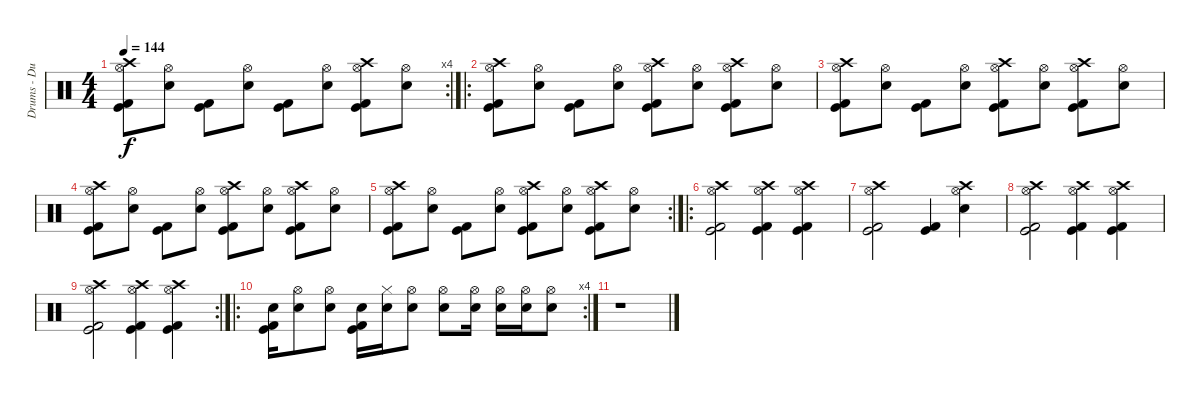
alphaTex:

\track ("Drums - Duncan Scott" "Drums - Du") {instrument percussion}
\staff {score}
\articulation defaults
\rc 4
\ts (4 4)
\tempo 144
\clef neutral
\ks c
("Hi-Hat (open)" "Crash high (hit)" "Kick (hit)" "Kick (hit) 2").8{dy f} ("Hi-Hat (open)" "Electric Snare (hit)").8 ("Kick (hit)" "Kick (hit) 2").8 ("Hi-Hat (open)" "Electric Snare (hit)").8 ("Kick (hit)" "Kick (hit) 2").8 ("Hi-Hat (open)" "Electric Snare (hit)").8 ("Hi-Hat (open)" "Crash high (hit)" "Kick (hit)" "Kick (hit) 2").8 ("Hi-Hat (open)" "Electric Snare (hit)").8 |
\ro
("Crash high (hit)" "Hi-Hat (open)" "Kick (hit)" "Kick (hit) 2").8 ("Hi-Hat (open)" "Electric Snare (hit)").8 ("Kick (hit)" "Kick (hit) 2").8 ("Hi-Hat (open)" "Electric Snare (hit)").8 ("Crash high (hit)" "Hi-Hat (open)" "Kick (hit)" "Kick (hit) 2").8 ("Hi-Hat (open)" "Electric Snare (hit)").8 ("Crash high (hit)" "Hi-Hat (open)" "Kick (hit)" "Kick (hit) 2").8 ("Hi-Hat (open)" "Electric Snare (hit)").8 |
("Crash high (hit)" "Hi-Hat (open)" "Kick (hit)" "Kick (hit) 2").8 ("Hi-Hat (open)" "Electric Snare (hit)").8 ("Kick (hit)" "Kick (hit) 2").8 ("Hi-Hat (open)" "Electric Snare (hit)").8 ("Crash high (hit)" "Hi-Hat (open)" "Kick (hit)" "Kick (hit) 2").8 ("Hi-Hat (open)" "Electric Snare (hit)").8 ("Crash high (hit)" "Hi-Hat (open)" "Kick (hit)" "Kick (hit) 2").8 ("Hi-Hat (open)" "Electric Snare (hit)").8 |
("Crash high (hit)" "Hi-Hat (open)" "Kick (hit)" "Kick (hit) 2").8 ("Hi-Hat (open)" "Electric Snare (hit)").8 ("Kick (hit)" "Kick (hit) 2").8 ("Hi-Hat (open)" "Electric Snare (hit)").8 ("Crash high (hit)" "Hi-Hat (open)" "Kick (hit)" "Kick (hit) 2").8 ("Hi-Hat (open)" "Electric Snare (hit)").8 ("Crash high (hit)" "Hi-Hat (open)" "Kick (hit)" "Kick (hit) 2").8 ("Hi-Hat (open)" "Electric Snare (hit)").8 |
\rc 2
("Crash high (hit)" "Hi-Hat (open)" "Kick (hit)" "Kick (hit) 2").8 ("Hi-Hat (open)" "Electric Snare (hit)").8 ("Kick (hit)" "Kick (hit) 2").8 ("Hi-Hat (open)" "Electric Snare (hit)").8 ("Crash high (hit)" "Hi-Hat (open)" "Kick (hit)" "Kick (hit) 2").8 ("Hi-Hat (open)" "Electric Snare (hit)").8 ("Crash high (hit)" "Hi-Hat (open)" "Kick (hit)" "Kick (hit) 2").8 ("Hi-Hat (open)" "Electric Snare (hit)").8 |
\ro
("Crash high (hit)" "Hi-Hat (open)" "Kick (hit)" "Kick (hit) 2").2 ("Crash high (hit)" "Hi-Hat (open)" "Kick (hit)" "Kick (hit) 2").4 ("Crash high (hit)" "Hi-Hat (open)" "Kick (hit)" "Kick (hit) 2").4 |
("Crash high (hit)" "Hi-Hat (open)" "Kick (hit)" "Kick (hit) 2").2 ("Kick (hit)" "Kick (hit) 2").4 ("Crash high (hit)" "Hi-Hat (open)" "Electric Snare (hit)").4 |
("Crash high (hit)" "Hi-Hat (open)" "Kick (hit)" "Kick (hit) 2").2 ("Crash high (hit)" "Hi-Hat (open)" "Kick (hit)" "Kick (hit) 2").4 ("Crash high (hit)" "Hi-Hat (open)" "Kick (hit)" "Kick (hit) 2").4 |
\rc 2
("Crash high (hit)" "Hi-Hat (open)" "Kick (hit)" "Kick (hit) 2").2 ("Crash high (hit)" "Hi-Hat (open)" "Kick (hit)" "Kick (hit) 2").4 ("Crash high (hit)" "Hi-Hat (open)" "Kick (hit)" "Kick (hit) 2").4 |
\ro
\rc 4
("Electric Snare (hit)" "Kick (hit) 2" "Kick (hit)").16 ("Electric Snare (hit)" "Hi-Hat (open)").8 ("Electric Snare (hit)" "Hi-Hat (open)").8 ("Electric Snare (hit)" "Kick (hit) 2" "Kick (hit)").16 ("Electric Snare (hit)" "Hi-Hat (closed)").16 ("Electric Snare (hit)" "Hi-Hat (open)").8 ("Electric Snare (hit)" "Hi-Hat (open)").8 ("Electric Snare (hit)" "Hi-Hat (open)").16 ("Electric Snare (hit)" "Hi-Hat (open)").16 ("Electric Snare (hit)" "Hi-Hat (open)").16 ("Electric Snare (hit)" "Hi-Hat (open)").8 |
r.1
